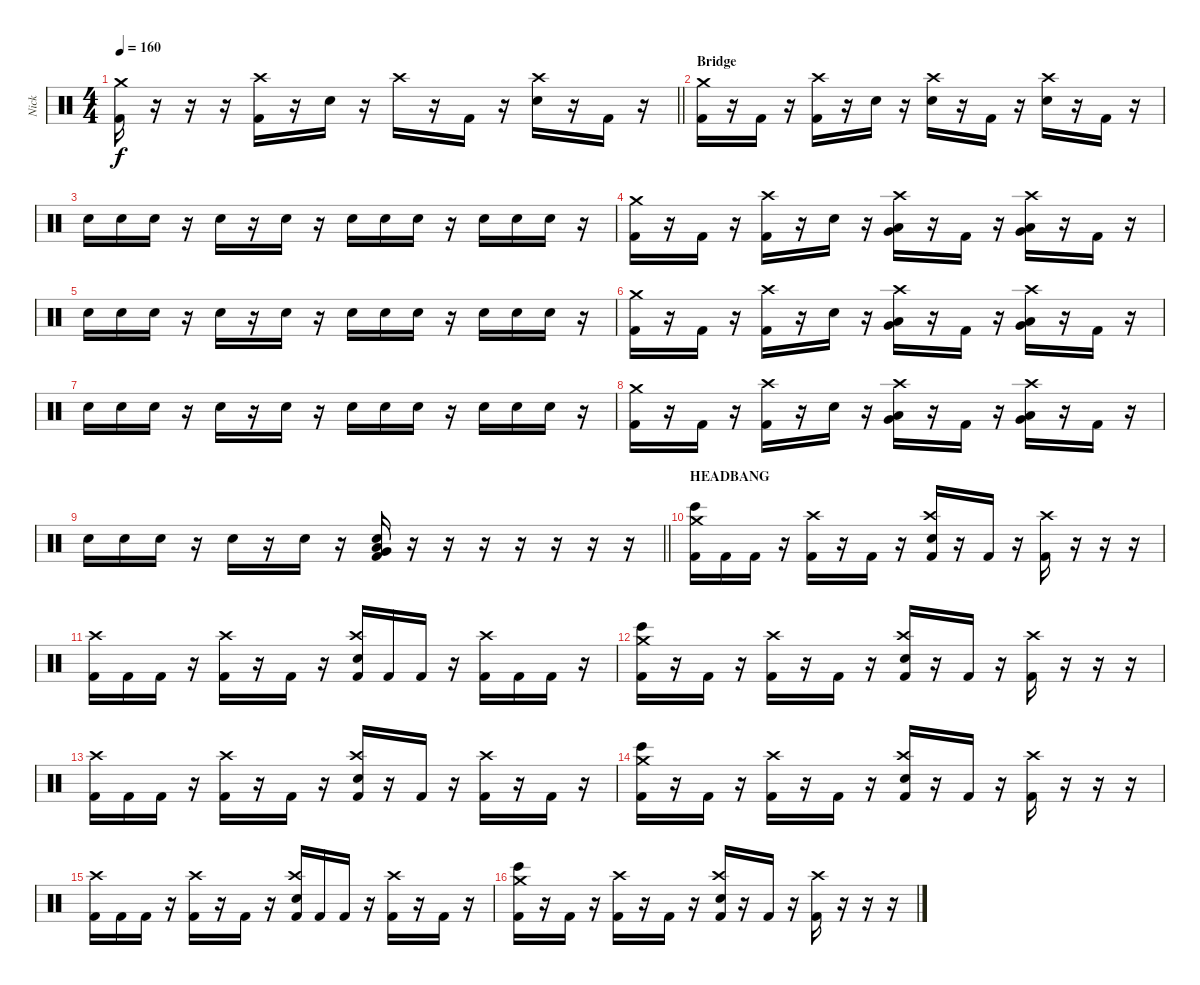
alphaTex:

\track ("Nick" "Nick") {instrument percussion}
\staff {score}
\articulation defaults
\ts (4 4)
\tempo 160
\clef neutral
\barLineRight lightlight
\ks c
("Kick (hit) 2" "Crash medium (hit)").16{dy f} r.16 r.16 r.16 ("Kick (hit) 2" "Crash high (hit)").16 r.16 "Electric Snare (hit)".16 r.16 "Crash high (hit)".16 r.16 "Kick (hit) 2".16 r.16 ("Electric Snare (hit)" "Crash high (hit)").16 r.16 "Kick (hit) 2".16 r.16 |
\section ("" "Bridge")
("Kick (hit) 2" "Crash medium (hit)").16 r.16 "Kick (hit) 2".16 r.16 ("Kick (hit) 2" "Crash high (hit)").16 r.16 "Electric Snare (hit)".16 r.16 ("Electric Snare (hit)" "Crash high (hit)").16 r.16 "Kick (hit) 2".16 r.16 ("Electric Snare (hit)" "Crash high (hit)").16 r.16 "Kick (hit) 2".16 r.16 |
"Electric Snare (hit)".16 "Electric Snare (hit)".16 "Electric Snare (hit)".16 r.16 "Electric Snare (hit)".16 r.16 "Electric Snare (hit)".16 r.16 "Electric Snare (hit)".16 "Electric Snare (hit)".16 "Electric Snare (hit)".16 r.16 "Electric Snare (hit)".16 "Electric Snare (hit)".16 "Electric Snare (hit)".16 r.16 |
("Kick (hit) 2" "Crash medium (hit)").16 r.16 "Kick (hit) 2".16 r.16 ("Kick (hit) 2" "Crash high (hit)").16 r.16 "Electric Snare (hit)".16 r.16 ("Low Tom (hit)" "Very Low Tom (hit)" "Crash high (hit)").16 r.16 "Kick (hit) 2".16 r.16 ("Very Low Tom (hit)" "Low Floor Tom (hit)" "Crash high (hit)").16 r.16 "Kick (hit) 2".16 r.16 |
"Electric Snare (hit)".16 "Electric Snare (hit)".16 "Electric Snare (hit)".16 r.16 "Electric Snare (hit)".16 r.16 "Electric Snare (hit)".16 r.16 "Electric Snare (hit)".16 "Electric Snare (hit)".16 "Electric Snare (hit)".16 r.16 "Electric Snare (hit)".16 "Electric Snare (hit)".16 "Electric Snare (hit)".16 r.16 |
("Kick (hit) 2" "Crash medium (hit)").16 r.16 "Kick (hit) 2".16 r.16 ("Kick (hit) 2" "Crash high (hit)").16 r.16 "Electric Snare (hit)".16 r.16 ("Low Tom (hit)" "Very Low Tom (hit)" "Crash high (hit)").16 r.16 "Kick (hit) 2".16 r.16 ("Very Low Tom (hit)" "Low Floor Tom (hit)" "Crash high (hit)").16 r.16 "Kick (hit) 2".16 r.16 |
"Electric Snare (hit)".16 "Electric Snare (hit)".16 "Electric Snare (hit)".16 r.16 "Electric Snare (hit)".16 r.16 "Electric Snare (hit)".16 r.16 "Electric Snare (hit)".16 "Electric Snare (hit)".16 "Electric Snare (hit)".16 r.16 "Electric Snare (hit)".16 "Electric Snare (hit)".16 "Electric Snare (hit)".16 r.16 |
("Kick (hit) 2" "Crash medium (hit)").16 r.16 "Kick (hit) 2".16 r.16 ("Kick (hit) 2" "Crash high (hit)").16 r.16 "Electric Snare (hit)".16 r.16 ("Low Tom (hit)" "Very Low Tom (hit)" "Crash high (hit)").16 r.16 "Kick (hit) 2".16 r.16 ("Very Low Tom (hit)" "Low Floor Tom (hit)" "Crash high (hit)").16 r.16 "Kick (hit) 2".16 r.16 |
\barLineRight lightlight "Electric Snare (hit)".16 "Electric Snare (hit)".16 "Electric Snare (hit)".16
r.16 "Electric Snare (hit)".16 r.16 "Electric Snare (hit)".16 r.16 ("Electric Snare (hit)" "Very Low Tom (hit)" "Low Floor Tom (hit)" "Kick (hit) 2").16 r.16 r.16 r.16 r.16 r.16 r.16 r.16 |
\section ("" "HEADBANG")
("Kick (hit) 2" "Bongo High (hit)" "Crash medium (hit)").16 "Kick (hit) 2".16 "Kick (hit) 2".16 r.16 ("Kick (hit) 2" "Crash high (hit)").16 r.16 "Kick (hit) 2".16 r.16 ("Kick (hit) 2" "Electric Snare (hit)" "Crash high (hit)").16 r.16 "Kick (hit) 2".16 r.16 ("Kick (hit) 2" "Crash high (hit)").16 r.16 r.16 r.16 |
("Kick (hit) 2" "Crash high (hit)").16 "Kick (hit) 2".16 "Kick (hit) 2".16 r.16 ("Kick (hit) 2" "Crash high (hit)").16 r.16 "Kick (hit) 2".16 r.16 ("Kick (hit) 2" "Electric Snare (hit)" "Crash high (hit)").16 "Kick (hit) 2".16 "Kick (hit) 2".16 r.16 ("Kick (hit) 2" "Crash high (hit)").16 "Kick (hit) 2".16 "Kick (hit) 2".16 r.16 |
("Kick (hit) 2" "Bongo High (hit)" "Crash medium (hit)").16 r.16 "Kick (hit) 2".16 r.16 ("Kick (hit) 2" "Crash high (hit)").16 r.16 "Kick (hit) 2".16 r.16 ("Kick (hit) 2" "Electric Snare (hit)" "Crash high (hit)").16 r.16 "Kick (hit) 2".16 r.16 ("Kick (hit) 2" "Crash high (hit)").16 r.16 r.16 r.16 |
("Kick (hit) 2" "Crash high (hit)").16 "Kick (hit) 2".16 "Kick (hit) 2".16 r.16 ("Kick (hit) 2" "Crash high (hit)").16 r.16 "Kick (hit) 2".16 r.16 ("Kick (hit) 2" "Electric Snare (hit)" "Crash high (hit)").16 r.16 "Kick (hit) 2".16 r.16 ("Kick (hit) 2" "Crash high (hit)").16 r.16 "Kick (hit) 2".16 r.16 |
("Kick (hit) 2" "Bongo High (hit)" "Crash medium (hit)").16 r.16 "Kick (hit) 2".16 r.16 ("Kick (hit) 2" "Crash high (hit)").16 r.16 "Kick (hit) 2".16 r.16 ("Kick (hit) 2" "Electric Snare (hit)" "Crash high (hit)").16 r.16 "Kick (hit) 2".16 r.16 ("Kick (hit) 2" "Crash high (hit)").16 r.16 r.16 r.16 |
("Kick (hit) 2" "Crash high (hit)").16 "Kick (hit) 2".16 "Kick (hit) 2".16 r.16 ("Kick (hit) 2" "Crash high (hit)").16 r.16 "Kick (hit) 2".16 r.16 ("Kick (hit) 2" "Electric Snare (hit)" "Crash high (hit)").16 "Kick (hit) 2".16 "Kick (hit) 2".16 r.16 ("Kick (hit) 2" "Crash high (hit)").16 r.16 "Kick (hit) 2".16 r.16 |
("Kick (hit) 2" "Bongo High (hit)" "Crash medium (hit)").16 r.16 "Kick (hit) 2".16 r.16 ("Kick (hit) 2" "Crash high (hit)").16 r.16 "Kick (hit) 2".16 r.16 ("Kick (hit) 2" "Electric Snare (hit)" "Crash high (hit)").16 r.16 "Kick (hit) 2".16 r.16 ("Kick (hit) 2" "Crash high (hit)").16 r.16 r.16 r.16
